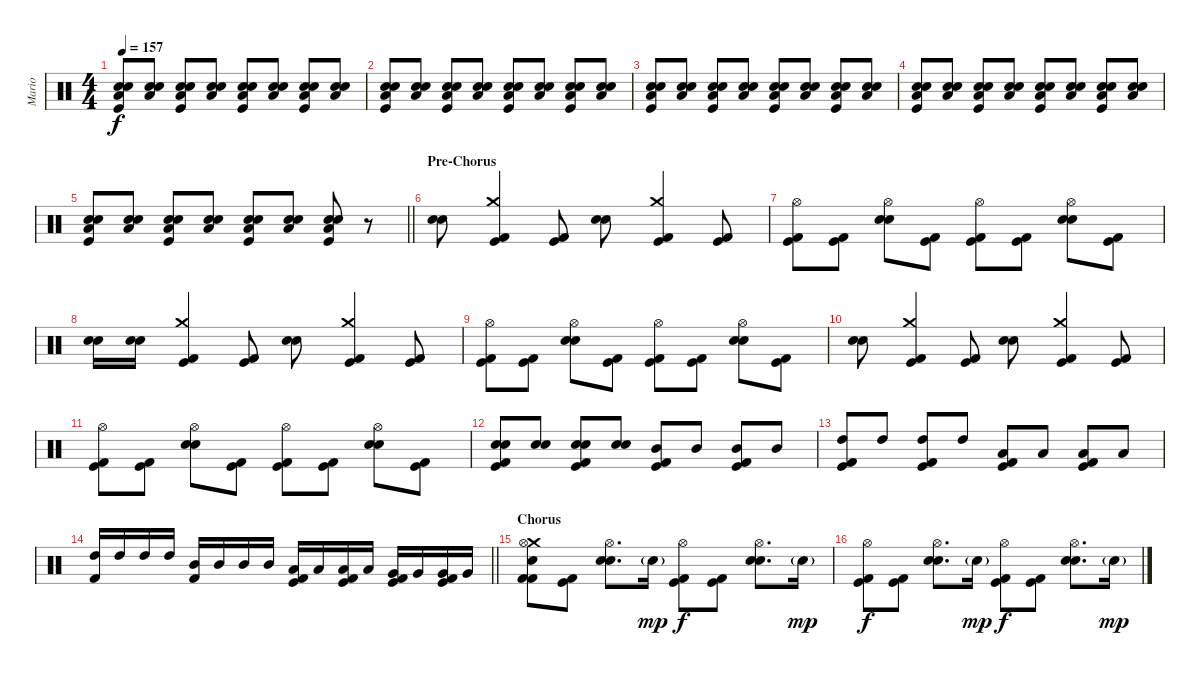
\track ("Mario" "Mario") {instrument percussion}
\staff {score}
\articulation defaults
\ts (4 4)
\tempo 157
\clef neutral
\ks c
("Snare (hit) 2" "Electric Snare (hit)" "Low Floor Tom (hit)" "Kick (hit)").8{dy f} ("Snare (hit) 2" "Electric Snare (hit)" "Low Floor Tom (hit)").8 ("Snare (hit) 2" "Electric Snare (hit)" "Low Floor Tom (hit)" "Kick (hit)").8 ("Snare (hit) 2" "Electric Snare (hit)" "Low Floor Tom (hit)").8 ("Snare (hit) 2" "Electric Snare (hit)" "Low Floor Tom (hit)" "Kick (hit)").8 ("Snare (hit) 2" "Electric Snare (hit)" "Low Floor Tom (hit)").8 ("Snare (hit) 2" "Electric Snare (hit)" "Low Floor Tom (hit)" "Kick (hit)").8 ("Snare (hit) 2" "Electric Snare (hit)" "Low Floor Tom (hit)").8 |
("Snare (hit) 2" "Electric Snare (hit)" "Low Floor Tom (hit)" "Kick (hit)").8 ("Snare (hit) 2" "Electric Snare (hit)" "Low Floor Tom (hit)").8 ("Snare (hit) 2" "Electric Snare (hit)" "Low Floor Tom (hit)" "Kick (hit)").8 ("Snare (hit) 2" "Electric Snare (hit)" "Low Floor Tom (hit)").8 ("Snare (hit) 2" "Electric Snare (hit)" "Low Floor Tom (hit)" "Kick (hit)").8 ("Snare (hit) 2" "Electric Snare (hit)" "Low Floor Tom (hit)").8 ("Snare (hit) 2" "Electric Snare (hit)" "Low Floor Tom (hit)" "Kick (hit)").8 ("Snare (hit) 2" "Electric Snare (hit)" "Low Floor Tom (hit)").8 |
("Snare (hit) 2" "Electric Snare (hit)" "Low Floor Tom (hit)" "Kick (hit)").8{volume 13} ("Snare (hit) 2" "Electric Snare (hit)" "Low Floor Tom (hit)").8 ("Snare (hit) 2" "Electric Snare (hit)" "Low Floor Tom (hit)" "Kick (hit)").8 ("Snare (hit) 2" "Electric Snare (hit)" "Low Floor Tom (hit)").8 ("Snare (hit) 2" "Electric Snare (hit)" "Low Floor Tom (hit)" "Kick (hit)").8 ("Snare (hit) 2" "Electric Snare (hit)" "Low Floor Tom (hit)").8 ("Snare (hit) 2" "Electric Snare (hit)" "Low Floor Tom (hit)" "Kick (hit)").8 ("Snare (hit) 2" "Electric Snare (hit)" "Low Floor Tom (hit)").8 |
("Snare (hit) 2" "Electric Snare (hit)" "Low Floor Tom (hit)" "Kick (hit)").8 ("Snare (hit) 2" "Electric Snare (hit)" "Low Floor Tom (hit)").8 ("Snare (hit) 2" "Electric Snare (hit)" "Low Floor Tom (hit)" "Kick (hit)").8 ("Snare (hit) 2" "Electric Snare (hit)" "Low Floor Tom (hit)").8 ("Snare (hit) 2" "Electric Snare (hit)" "Low Floor Tom (hit)" "Kick (hit)").8 ("Snare (hit) 2" "Electric Snare (hit)" "Low Floor Tom (hit)").8 ("Snare (hit) 2" "Electric Snare (hit)" "Low Floor Tom (hit)" "Kick (hit)").8 ("Snare (hit) 2" "Electric Snare (hit)" "Low Floor Tom (hit)").8 |
\barLineRight lightlight
("Snare (hit) 2" "Electric Snare (hit)" "Low Floor Tom (hit)" "Kick (hit)").8{volume 14} ("Snare (hit) 2" "Electric Snare (hit)" "Low Floor Tom (hit)").8 ("Snare (hit) 2" "Electric Snare (hit)" "Low Floor Tom (hit)" "Kick (hit)").8 ("Snare (hit) 2" "Electric Snare (hit)" "Low Floor Tom (hit)").8 ("Snare (hit) 2" "Electric Snare (hit)" "Low Floor Tom (hit)" "Kick (hit)").8 ("Snare (hit) 2" "Electric Snare (hit)" "Low Floor Tom (hit)").8 ("Snare (hit) 2" "Electric Snare (hit)" "Low Floor Tom (hit)" "Kick (hit)").8 r.8 |
\section ("" "Pre-Chorus")
("Snare (hit) 2" "Electric Snare (hit)").8 ("Crash medium (hit)" "Kick (hit)" "Kick (hit) 2").4 ("Kick (hit)" "Kick (hit) 2").8 ("Snare (hit) 2" "Electric Snare (hit)").8 ("Crash medium (hit)" "Kick (hit)" "Kick (hit) 2").4 ("Kick (hit)" "Kick (hit) 2").8 |
("Hi-Hat (open)" "Kick (hit)" "Kick (hit) 2").8 ("Kick (hit)" "Kick (hit) 2").8 ("Hi-Hat (open)" "Snare (hit) 2" "Electric Snare (hit)").8 ("Kick (hit)" "Kick (hit) 2").8 ("Hi-Hat (open)" "Kick (hit)" "Kick (hit) 2").8 ("Kick (hit)" "Kick (hit) 2").8 ("Hi-Hat (open)" "Snare (hit) 2" "Electric Snare (hit)").8 ("Kick (hit)" "Kick (hit) 2").8 |
("Snare (hit) 2" "Electric Snare (hit)").16 ("Snare (hit) 2" "Electric Snare (hit)").16 ("Crash medium (hit)" "Kick (hit)" "Kick (hit) 2").4 ("Kick (hit)" "Kick (hit) 2").8 ("Snare (hit) 2" "Electric Snare (hit)").8 ("Crash medium (hit)" "Kick (hit)" "Kick (hit) 2").4 ("Kick (hit)" "Kick (hit) 2").8 |
("Hi-Hat (open)" "Kick (hit)" "Kick (hit) 2").8 ("Kick (hit)" "Kick (hit) 2").8 ("Hi-Hat (open)" "Snare (hit) 2" "Electric Snare (hit)").8 ("Kick (hit)" "Kick (hit) 2").8 ("Hi-Hat (open)" "Kick (hit)" "Kick (hit) 2").8 ("Kick (hit)" "Kick (hit) 2").8 ("Hi-Hat (open)" "Snare (hit) 2" "Electric Snare (hit)").8 ("Kick (hit)" "Kick (hit) 2").8 |
("Snare (hit) 2" "Electric Snare (hit)").8 ("Crash medium (hit)" "Kick (hit)" "Kick (hit) 2").4 ("Kick (hit)" "Kick (hit) 2").8 ("Snare (hit) 2" "Electric Snare (hit)").8 ("Crash medium (hit)" "Kick (hit)" "Kick (hit) 2").4 ("Kick (hit)" "Kick (hit) 2").8 |
("Hi-Hat (open)" "Kick (hit)" "Kick (hit) 2").8 ("Kick (hit)" "Kick (hit) 2").8 ("Hi-Hat (open)" "Snare (hit) 2" "Electric Snare (hit)").8 ("Kick (hit)" "Kick (hit) 2").8 ("Hi-Hat (open)" "Kick (hit)" "Kick (hit) 2").8 ("Kick (hit)" "Kick (hit) 2").8 ("Hi-Hat (open)" "Snare (hit) 2" "Electric Snare (hit)").8 ("Kick (hit)" "Kick (hit) 2").8 |
("Snare (hit) 2" "Electric Snare (hit)" "Kick (hit)" "Kick (hit) 2").8 ("Snare (hit) 2" "Electric Snare (hit)").8 ("Snare (hit) 2" "Electric Snare (hit)" "Kick (hit)" "Kick (hit) 2").8 ("Snare (hit) 2" "Electric Snare (hit)").8 ("Mid Tom (hit)" "Kick (hit)" "Kick (hit) 2").8 "Mid Tom (hit)".8 ("Mid Tom (hit)" "Kick (hit)" "Kick (hit) 2").8 "Mid Tom (hit)".8 |
("High Tom (hit)" "Kick (hit)" "Kick (hit) 2").8 "High Tom (hit)".8 ("High Tom (hit)" "Kick (hit)" "Kick (hit) 2").8 "High Tom (hit)".8 ("Low Tom (hit)" "Kick (hit)" "Kick (hit) 2").8 "Low Tom (hit)".8 ("Low Tom (hit)" "Kick (hit)" "Kick (hit) 2").8 "Low Tom (hit)".8 |
\barLineRight lightlight
("High Tom (hit)" "Kick (hit) 2").16 "High Tom (hit)".16 "High Tom (hit)".16 "High Tom (hit)".16 ("Mid Tom (hit)" "Kick (hit) 2").16 "Mid Tom (hit)".16 "Mid Tom (hit)".16 "Mid Tom (hit)".16 ("Low Tom (hit)" "Kick (hit)" "Kick (hit) 2").16 "Low Tom (hit)".16 ("Low Tom (hit)" "Kick (hit)" "Kick (hit) 2").16 "Low Tom (hit)".16 ("Very Low Tom (hit)" "Kick (hit)" "Kick (hit) 2").16 "Very Low Tom (hit)".16 ("Very Low Tom (hit)" "Kick (hit)" "Kick (hit) 2").16 "Very Low Tom (hit)".16 |
\section ("" "Chorus")
("Crash medium (hit)" "Hi-Hat (open)" "Snare (hit) 2" "Kick (hit) 2" "Kick (hit) 2").8 ("Kick (hit)" "Kick (hit) 2").8 ("Hi-Hat (open)" "Electric Snare (hit)" "Snare (hit) 2").8{d} "Snare (hit) 2"{g}.16{dy mp} ("Hi-Hat (open)" "Kick (hit)" "Kick (hit) 2").8{dy f} ("Kick (hit)" "Kick (hit) 2").8 ("Hi-Hat (open)" "Electric Snare (hit)" "Snare (hit) 2").8{d} "Snare (hit) 2"{g}.16{dy mp} |
("Hi-Hat (open)" "Kick (hit)" "Kick (hit) 2").8{dy f} ("Kick (hit)" "Kick (hit) 2").8 ("Hi-Hat (open)" "Electric Snare (hit)" "Snare (hit) 2").8{d} "Snare (hit) 2"{g}.16{dy mp} ("Hi-Hat (open)" "Kick (hit)" "Kick (hit) 2").8{dy f} ("Kick (hit)" "Kick (hit) 2").8 ("Hi-Hat (open)" "Electric Snare (hit)" "Snare (hit) 2").8{d} "Snare (hit) 2"{g}.16{dy mp}
